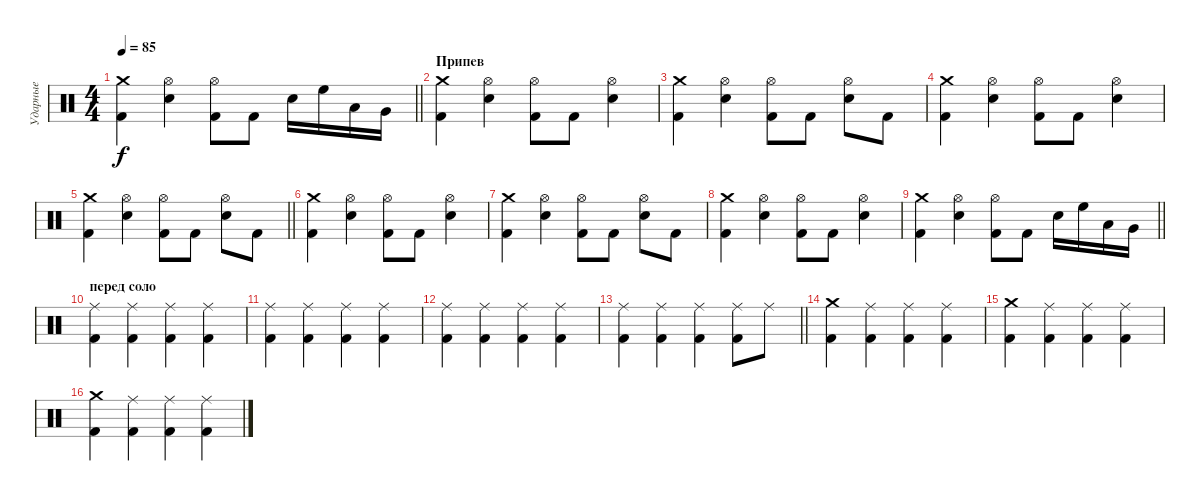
\track ("Ударные" "Ударные") {instrument percussion}
\staff {score}
\articulation defaults
\ts (4 4)
\tempo 85
\clef neutral
\barLineRight lightlight
\ks c
("Crash medium (hit)" "Kick (hit) 2").4{dy f} ("Hi-Hat (open)" "Snare (hit) 2").4 ("Hi-Hat (open)" "Kick (hit) 2").8 "Kick (hit) 2".8 "Snare (hit) 2".16 "High Floor Tom (hit)".16 "Low Tom (hit)".16 "Very Low Tom (hit)".16 |
\section ("" "Припев")
("Crash medium (hit)" "Kick (hit) 2").4 ("Hi-Hat (open)" "Snare (hit) 2").4 ("Hi-Hat (open)" "Kick (hit) 2").8 "Kick (hit) 2".8 ("Hi-Hat (open)" "Snare (hit) 2").4 |
("Crash medium (hit)" "Kick (hit) 2").4 ("Hi-Hat (open)" "Snare (hit) 2").4 ("Hi-Hat (open)" "Kick (hit) 2").8 "Kick (hit) 2".8 ("Hi-Hat (open)" "Snare (hit) 2").8 "Kick (hit) 2".8 |
("Crash medium (hit)" "Kick (hit) 2").4 ("Hi-Hat (open)" "Snare (hit) 2").4 ("Hi-Hat (open)" "Kick (hit) 2").8 "Kick (hit) 2".8 ("Hi-Hat (open)" "Snare (hit) 2").4 |
\barLineRight lightlight
("Crash medium (hit)" "Kick (hit) 2").4 ("Hi-Hat (open)" "Snare (hit) 2").4 ("Hi-Hat (open)" "Kick (hit) 2").8 "Kick (hit) 2".8 ("Hi-Hat (open)" "Snare (hit) 2").8 "Kick (hit) 2".8 |
("Crash medium (hit)" "Kick (hit) 2").4 ("Hi-Hat (open)" "Snare (hit) 2").4 ("Hi-Hat (open)" "Kick (hit) 2").8 "Kick (hit) 2".8 ("Hi-Hat (open)" "Snare (hit) 2").4 |
("Crash medium (hit)" "Kick (hit) 2").4 ("Hi-Hat (open)" "Snare (hit) 2").4 ("Hi-Hat (open)" "Kick (hit) 2").8 "Kick (hit) 2".8 ("Hi-Hat (open)" "Snare (hit) 2").8 "Kick (hit) 2".8 |
("Crash medium (hit)" "Kick (hit) 2").4 ("Hi-Hat (open)" "Snare (hit) 2").4 ("Hi-Hat (open)" "Kick (hit) 2").8 "Kick (hit) 2".8 ("Hi-Hat (open)" "Snare (hit) 2").4 |
\barLineRight lightlight
("Crash medium (hit)" "Kick (hit) 2").4 ("Hi-Hat (open)" "Snare (hit) 2").4 ("Hi-Hat (open)" "Kick (hit) 2").8 "Kick (hit) 2".8 "Snare (hit) 2".16 "High Floor Tom (hit)".16 "Low Tom (hit)".16 "Very Low Tom (hit)".16 |
\section ("" "перед соло")
("Ride (middle)" "Kick (hit) 2").4 ("Ride (middle)" "Kick (hit) 2").4 ("Ride (middle)" "Kick (hit) 2").4 ("Ride (middle)" "Kick (hit) 2").4 |
("Ride (middle)" "Kick (hit) 2").4 ("Ride (middle)" "Kick (hit) 2").4 ("Ride (middle)" "Kick (hit) 2").4 ("Ride (middle)" "Kick (hit) 2").4 |
("Ride (middle)" "Kick (hit) 2").4 ("Ride (middle)" "Kick (hit) 2").4 ("Ride (middle)" "Kick (hit) 2").4 ("Ride (middle)" "Kick (hit) 2").4 |
\barLineRight lightlight
("Ride (middle)" "Kick (hit) 2").4 ("Ride (middle)" "Kick (hit) 2").4 ("Ride (middle)" "Kick (hit) 2").4 ("Ride (middle)" "Kick (hit) 2").8 "Ride (middle)".8 |
("Crash medium (hit)" "Kick (hit) 2").4 ("Ride (middle)" "Kick (hit) 2").4 ("Ride (middle)" "Kick (hit) 2").4 ("Ride (middle)" "Kick (hit) 2").4 |
("Crash medium (hit)" "Kick (hit) 2").4 ("Ride (middle)" "Kick (hit) 2").4 ("Ride (middle)" "Kick (hit) 2").4 ("Ride (middle)" "Kick (hit) 2").4 |
("Crash medium (hit)" "Kick (hit) 2").4 ("Ride (middle)" "Kick (hit) 2").4 ("Ride (middle)" "Kick (hit) 2").4 ("Ride (middle)" "Kick (hit) 2").4
